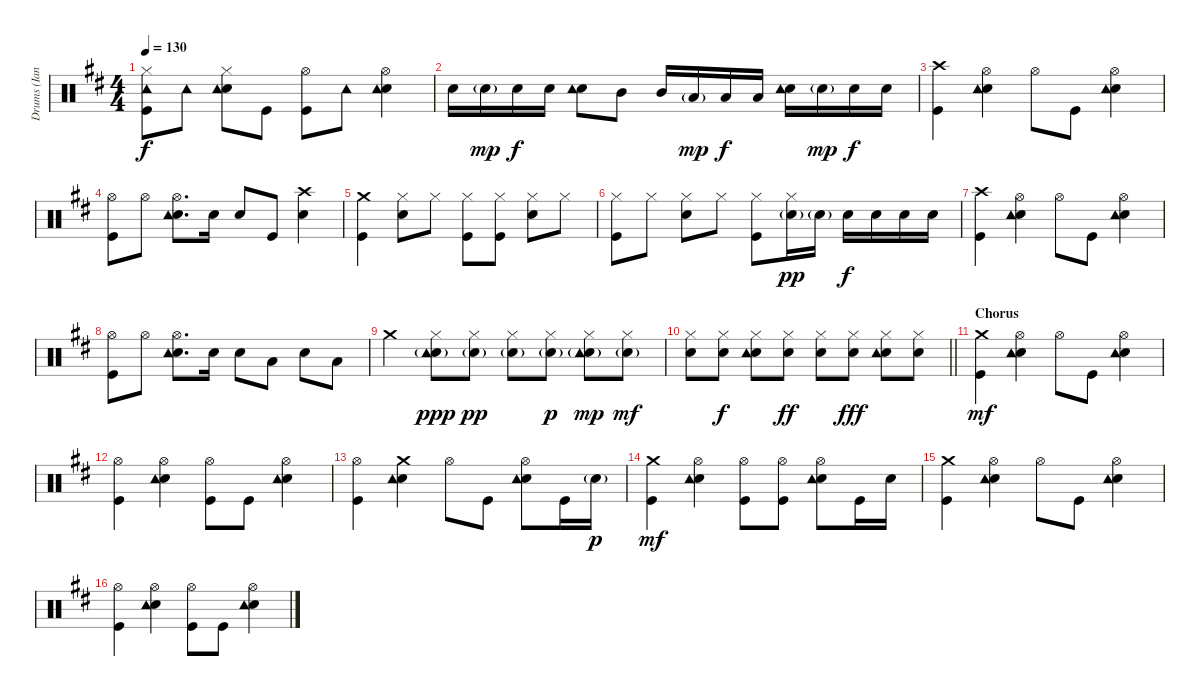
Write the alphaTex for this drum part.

\track ("Drums (Ian Paice)" "Drums (Ian") {instrument percussion}
\staff {score}
\articulation defaults
\ts (4 4)
\tempo 130
\clef neutral
\ks bminor
("Hi-Hat (closed)" "Tambourine (hit)" "Kick (hit)").8{dy f} "Tambourine (hit)".8 ("Hi-Hat (closed)" "Electric Snare (hit)" "Tambourine (hit)").8 "Kick (hit)".8 ("Hi-Hat (open)" "Kick (hit)").8 "Tambourine (hit)".8 ("Hi-Hat (open)" "Electric Snare (hit)" "Tambourine (hit)").4 |
"Electric Snare (hit)".16 "Electric Snare (hit)"{g}.16{dy mp} "Electric Snare (hit)".16{dy f} "Electric Snare (hit)".16 ("Electric Snare (hit)" "Tambourine (hit)").8 "Mid Tom (hit)".8 "Mid Tom (hit)".16 "Low Tom (hit)"{g}.16{dy mp} "Low Tom (hit)".16{dy f} "Low Tom (hit)".16 ("Electric Snare (hit)" "Tambourine (hit)").16 "Electric Snare (hit)"{g}.16{dy mp} "Electric Snare (hit)".16{dy f} "Electric Snare (hit)".16 |
("Crash high (hit)" "Kick (hit)").4 ("Hi-Hat (open)" "Electric Snare (hit)" "Tambourine (hit)").4 "Hi-Hat (open)".8 "Kick (hit)".8 ("Hi-Hat (open)" "Electric Snare (hit)" "Tambourine (hit)").4 |
("Hi-Hat (open)" "Kick (hit)").8 "Hi-Hat (open)".8 ("Hi-Hat (open)" "Electric Snare (hit)" "Tambourine (hit)").8{d} "Electric Snare (hit)".16 "Electric Snare (hit)".8 "Kick (hit)".8 ("Crash high (hit)" "Electric Snare (hit)").4 |
("Crash medium (hit)" "Kick (hit)").4 ("Hi-Hat (closed)" "Electric Snare (hit)").8 "Hi-Hat (closed)".8 ("Hi-Hat (closed)" "Kick (hit)").8 ("Hi-Hat (closed)" "Kick (hit)").8 ("Hi-Hat (closed)" "Electric Snare (hit)").8 "Hi-Hat (closed)".8 |
("Hi-Hat (closed)" "Kick (hit)").8 "Hi-Hat (closed)".8 ("Hi-Hat (closed)" "Electric Snare (hit)").8 "Hi-Hat (closed)".8 ("Hi-Hat (closed)" "Kick (hit)").8 ("Hi-Hat (closed)" "Electric Snare (hit)"{g}).16{dy pp} "Electric Snare (hit)"{g}.16 "Electric Snare (hit)".16{dy f} "Electric Snare (hit)".16 "Electric Snare (hit)".16 "Electric Snare (hit)".16 |
("Crash high (hit)" "Kick (hit)").4 ("Hi-Hat (open)" "Electric Snare (hit)" "Tambourine (hit)").4 "Hi-Hat (open)".8 "Kick (hit)".8 ("Hi-Hat (open)" "Electric Snare (hit)" "Tambourine (hit)").4 |
("Hi-Hat (open)" "Kick (hit)").8 "Hi-Hat (open)".8 ("Hi-Hat (open)" "Electric Snare (hit)" "Tambourine (hit)").8{d} "Electric Snare (hit)".16 "Electric Snare (hit)".8 "Low Tom (hit)".8 "Electric Snare (hit)".8 "Low Tom (hit)".8 |
"Crash medium (hit)".4 ("Hi-Hat (closed)" "Electric Snare (hit)"{g} "Tambourine (hit)").8{dy ppp} ("Hi-Hat (closed)" "Electric Snare (hit)"{g}).8{dy pp} ("Hi-Hat (closed)" "Electric Snare (hit)"{g}).8 ("Hi-Hat (closed)" "Electric Snare (hit)"{g}).8{dy p} ("Hi-Hat (closed)" "Electric Snare (hit)"{g} "Tambourine (hit)").8{dy mp} ("Hi-Hat (closed)" "Electric Snare (hit)"{g}).8{dy mf} |
\barLineRight lightlight
("Hi-Hat (closed)" "Electric Snare (hit)").8 ("Hi-Hat (closed)" "Electric Snare (hit)").8{dy f} ("Hi-Hat (closed)" "Electric Snare (hit)" "Tambourine (hit)").8 ("Hi-Hat (closed)" "Electric Snare (hit)").8{dy ff} ("Hi-Hat (closed)" "Electric Snare (hit)").8 ("Hi-Hat (closed)" "Electric Snare (hit)").8{dy fff} ("Hi-Hat (closed)" "Electric Snare (hit)" "Tambourine (hit)").8 ("Hi-Hat (closed)" "Electric Snare (hit)").8 |
\section ("" "Chorus")
("Crash medium (hit)" "Kick (hit)").4{dy mf} ("Hi-Hat (open)" "Electric Snare (hit)" "Tambourine (hit)").4 "Hi-Hat (open)".8 "Kick (hit)".8 ("Hi-Hat (open)" "Electric Snare (hit)" "Tambourine (hit)").4 |
("Hi-Hat (open)" "Kick (hit)").4 ("Hi-Hat (open)" "Electric Snare (hit)" "Tambourine (hit)").4 ("Hi-Hat (open)" "Kick (hit)").8 "Kick (hit)".8 ("Hi-Hat (open)" "Electric Snare (hit)" "Tambourine (hit)").4 |
("Hi-Hat (open)" "Kick (hit)").4 ("Crash medium (hit)" "Electric Snare (hit)" "Tambourine (hit)").4 "Hi-Hat (open)".8 "Kick (hit)".8 ("Hi-Hat (open)" "Electric Snare (hit)" "Tambourine (hit)").8 "Kick (hit)".16 "Electric Snare (hit)"{g}.16{dy p} |
("Crash medium (hit)" "Kick (hit)").4{dy mf} ("Hi-Hat (open)" "Electric Snare (hit)" "Tambourine (hit)").4 ("Hi-Hat (open)" "Kick (hit)").8 ("Hi-Hat (open)" "Kick (hit)").8 ("Hi-Hat (open)" "Electric Snare (hit)" "Tambourine (hit)").8 "Kick (hit)".16 "Electric Snare (hit)".16 |
("Crash medium (hit)" "Kick (hit)").4 ("Hi-Hat (open)" "Electric Snare (hit)" "Tambourine (hit)").4 "Hi-Hat (open)".8 "Kick (hit)".8 ("Hi-Hat (open)" "Electric Snare (hit)" "Tambourine (hit)").4 |
("Hi-Hat (open)" "Kick (hit)").4 ("Hi-Hat (open)" "Electric Snare (hit)" "Tambourine (hit)").4 ("Hi-Hat (open)" "Kick (hit)").8 "Kick (hit)".8 ("Hi-Hat (open)" "Electric Snare (hit)" "Tambourine (hit)").4
